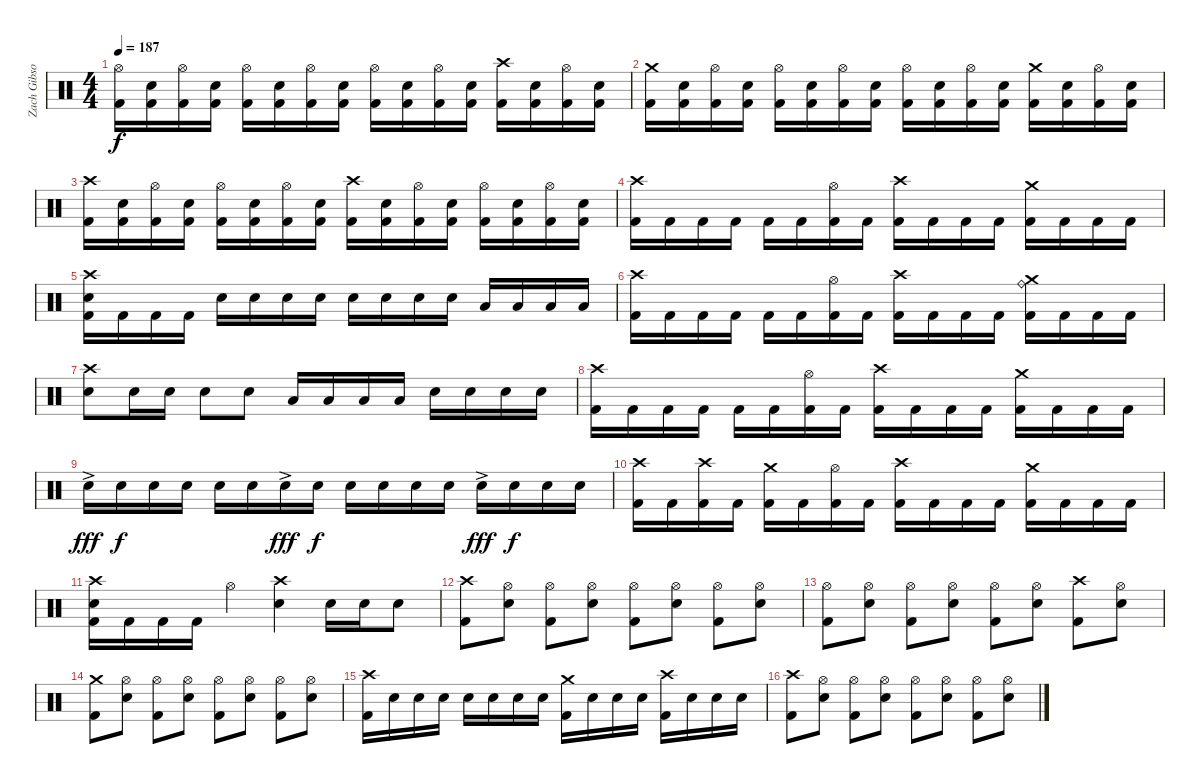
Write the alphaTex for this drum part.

\track ("Zach Gibson (Ex-Drums)" "Zach Gibso") {instrument percussion}
\staff {score}
\articulation defaults
\ts (4 4)
\tempo 187
\clef neutral
\ks c
("Hi-Hat (open)" "Kick (hit) 2").16{dy f} ("Snare (hit) 2" "Kick (hit) 2").16 ("Hi-Hat (open)" "Kick (hit) 2").16 ("Snare (hit) 2" "Kick (hit) 2").16 ("Hi-Hat (open)" "Kick (hit) 2").16 ("Snare (hit) 2" "Kick (hit) 2").16 ("Hi-Hat (open)" "Kick (hit) 2").16 ("Snare (hit) 2" "Kick (hit) 2").16 ("Hi-Hat (open)" "Kick (hit) 2").16 ("Snare (hit) 2" "Kick (hit) 2").16 ("Hi-Hat (open)" "Kick (hit) 2").16 ("Snare (hit) 2" "Kick (hit) 2").16 ("Crash high (hit)" "Kick (hit) 2").16 ("Snare (hit) 2" "Kick (hit) 2").16 ("Hi-Hat (open)" "Kick (hit) 2").16 ("Snare (hit) 2" "Kick (hit) 2").16 |
("Crash medium (hit)" "Kick (hit) 2").16 ("Snare (hit) 2" "Kick (hit) 2").16 ("Hi-Hat (open)" "Kick (hit) 2").16 ("Snare (hit) 2" "Kick (hit) 2").16 ("Hi-Hat (open)" "Kick (hit) 2").16 ("Snare (hit) 2" "Kick (hit) 2").16 ("Hi-Hat (open)" "Kick (hit) 2").16 ("Snare (hit) 2" "Kick (hit) 2").16 ("Hi-Hat (open)" "Kick (hit) 2").16 ("Snare (hit) 2" "Kick (hit) 2").16 ("Hi-Hat (open)" "Kick (hit) 2").16 ("Snare (hit) 2" "Kick (hit) 2").16 ("Crash medium (hit)" "Kick (hit) 2").16 ("Snare (hit) 2" "Kick (hit) 2").16 ("Hi-Hat (open)" "Kick (hit) 2").16 ("Snare (hit) 2" "Kick (hit) 2").16 |
("Crash high (hit)" "Kick (hit) 2").16 ("Snare (hit) 2" "Kick (hit) 2").16 ("Hi-Hat (open)" "Kick (hit) 2").16 ("Snare (hit) 2" "Kick (hit) 2").16 ("Hi-Hat (open)" "Kick (hit) 2").16 ("Snare (hit) 2" "Kick (hit) 2").16 ("Hi-Hat (open)" "Kick (hit) 2").16 ("Snare (hit) 2" "Kick (hit) 2").16 ("Crash high (hit)" "Kick (hit) 2").16 ("Snare (hit) 2" "Kick (hit) 2").16 ("Hi-Hat (open)" "Kick (hit) 2").16 ("Snare (hit) 2" "Kick (hit) 2").16 ("Hi-Hat (open)" "Kick (hit) 2").16 ("Snare (hit) 2" "Kick (hit) 2").16 ("Hi-Hat (open)" "Kick (hit) 2").16 ("Snare (hit) 2" "Kick (hit) 2").16 |
("Crash high (hit)" "Kick (hit) 2").16 "Kick (hit) 2".16 "Kick (hit) 2".16 "Kick (hit) 2".16 "Kick (hit) 2".16 "Kick (hit) 2".16 ("Hi-Hat (open)" "Kick (hit) 2").16 "Kick (hit) 2".16 ("Crash high (hit)" "Kick (hit) 2").16 "Kick (hit) 2".16 "Kick (hit) 2".16 "Kick (hit) 2".16 ("Crash medium (hit)" "Kick (hit) 2").16 "Kick (hit) 2".16 "Kick (hit) 2".16 "Kick (hit) 2".16 |
("Crash high (hit)" "Kick (hit) 2" "Snare (hit) 2").16 "Kick (hit) 2".16 "Kick (hit) 2".16 "Kick (hit) 2".16 "Snare (hit) 2".16 "Snare (hit) 2".16 "Snare (hit) 2".16 "Snare (hit) 2".16 "Snare (hit) 2".16 "Snare (hit) 2".16 "Snare (hit) 2".16 "Snare (hit) 2".16 "Low Tom (hit)".16 "Low Tom (hit)".16 "Low Floor Tom (hit)".16 "Low Floor Tom (hit)".16 |
("Crash high (hit)" "Kick (hit) 2").16 "Kick (hit) 2".16 "Kick (hit) 2".16 "Kick (hit) 2".16 "Kick (hit) 2".16 "Kick (hit) 2".16 ("Hi-Hat (open)" "Kick (hit) 2").16 "Kick (hit) 2".16 ("Crash high (hit)" "Kick (hit) 2").16 "Kick (hit) 2".16 "Kick (hit) 2".16 "Kick (hit) 2".16 ("Ride (bell)" "Crash medium (hit)" "Kick (hit) 2").16 "Kick (hit) 2".16 "Kick (hit) 2".16 "Kick (hit) 2".16 |
("Crash high (hit)" "Snare (hit) 2").8 "Snare (hit) 2".16 "Snare (hit) 2".16 "Snare (hit) 2".8 "Snare (hit) 2".8 "Low Tom (hit)".16 "Low Tom (hit)".16 "Low Tom (hit)".16 "Low Tom (hit)".16 "Snare (hit) 2".16 "Snare (hit) 2".16 "Snare (hit) 2".16 "Snare (hit) 2".16 |
("Crash high (hit)" "Kick (hit) 2").16 "Kick (hit) 2".16 "Kick (hit) 2".16 "Kick (hit) 2".16 "Kick (hit) 2".16 "Kick (hit) 2".16 ("Hi-Hat (open)" "Kick (hit) 2").16 "Kick (hit) 2".16 ("Crash high (hit)" "Kick (hit) 2").16 "Kick (hit) 2".16 "Kick (hit) 2".16 "Kick (hit) 2".16 ("Crash medium (hit)" "Kick (hit) 2").16 "Kick (hit) 2".16 "Kick (hit) 2".16 "Kick (hit) 2".16 |
"Snare (hit) 2"{ac}.16{dy fff} "Snare (hit) 2".16{dy f} "Snare (hit) 2".16 "Snare (hit) 2".16 "Snare (hit) 2".16 "Snare (hit) 2".16 "Snare (hit) 2"{ac}.16{dy fff} "Snare (hit) 2".16{dy f} "Snare (hit) 2".16 "Snare (hit) 2".16 "Snare (hit) 2".16 "Snare (hit) 2".16 "Snare (hit) 2"{ac}.16{dy fff} "Snare (hit) 2".16{dy f} "Snare (hit) 2".16 "Snare (hit) 2".16 |
("Crash high (hit)" "Kick (hit) 2").16 "Kick (hit) 2".16 ("Crash high (hit)" "Kick (hit) 2").16 "Kick (hit) 2".16 ("Crash medium (hit)" "Kick (hit) 2").16 "Kick (hit) 2".16 ("Hi-Hat (open)" "Kick (hit) 2").16 "Kick (hit) 2".16 ("Crash high (hit)" "Kick (hit) 2").16 "Kick (hit) 2".16 "Kick (hit) 2".16 "Kick (hit) 2".16 ("Crash medium (hit)" "Kick (hit) 2").16 "Kick (hit) 2".16 "Kick (hit) 2".16 "Kick (hit) 2".16 |
("Crash high (hit)" "Kick (hit) 2" "Snare (hit) 2").16 "Kick (hit) 2".16 "Kick (hit) 2".16 "Kick (hit) 2".16 "Hi-Hat (open)".4 ("Crash high (hit)" "Snare (hit) 2").4 "Snare (hit) 2".16 "Snare (hit) 2".16 "Snare (hit) 2".8 |
("Crash high (hit)" "Kick (hit) 2").8 ("Hi-Hat (open)" "Snare (hit) 2").8 ("Hi-Hat (open)" "Kick (hit) 2").8 ("Hi-Hat (open)" "Snare (hit) 2").8 ("Hi-Hat (open)" "Kick (hit) 2").8 ("Hi-Hat (open)" "Snare (hit) 2").8 ("Hi-Hat (open)" "Kick (hit) 2").8 ("Hi-Hat (open)" "Snare (hit) 2").8 |
("Hi-Hat (open)" "Kick (hit) 2").8 ("Hi-Hat (open)" "Snare (hit) 2").8 ("Hi-Hat (open)" "Kick (hit) 2").8 ("Hi-Hat (open)" "Snare (hit) 2").8 ("Hi-Hat (open)" "Kick (hit) 2").8 ("Hi-Hat (open)" "Snare (hit) 2").8 ("Crash high (hit)" "Kick (hit) 2").8 ("Hi-Hat (open)" "Snare (hit) 2").8 |
("Crash medium (hit)" "Kick (hit) 2").8 ("Hi-Hat (open)" "Snare (hit) 2").8 ("Hi-Hat (open)" "Kick (hit) 2").8 ("Hi-Hat (open)" "Snare (hit) 2").8 ("Hi-Hat (open)" "Kick (hit) 2").8 ("Hi-Hat (open)" "Snare (hit) 2").8 ("Hi-Hat (open)" "Kick (hit) 2").8 ("Hi-Hat (open)" "Snare (hit) 2").8 |
("Crash high (hit)" "Kick (hit) 2").16 "Snare (hit) 2".16 "Snare (hit) 2".16 "Snare (hit) 2".16 "Snare (hit) 2".16 "Snare (hit) 2".16 "Snare (hit) 2".16 "Snare (hit) 2".16 ("Crash medium (hit)" "Kick (hit) 2").16 "Snare (hit) 2".16 "Snare (hit) 2".16 "Snare (hit) 2".16 ("Crash high (hit)" "Kick (hit) 2").16 "Snare (hit) 2".16 "Snare (hit) 2".16 "Snare (hit) 2".16 |
("Crash high (hit)" "Kick (hit) 2").8 ("Hi-Hat (open)" "Snare (hit) 2").8 ("Hi-Hat (open)" "Kick (hit) 2").8 ("Hi-Hat (open)" "Snare (hit) 2").8 ("Hi-Hat (open)" "Kick (hit) 2").8 ("Hi-Hat (open)" "Snare (hit) 2").8 ("Hi-Hat (open)" "Kick (hit) 2").8 ("Hi-Hat (open)" "Snare (hit) 2").8
